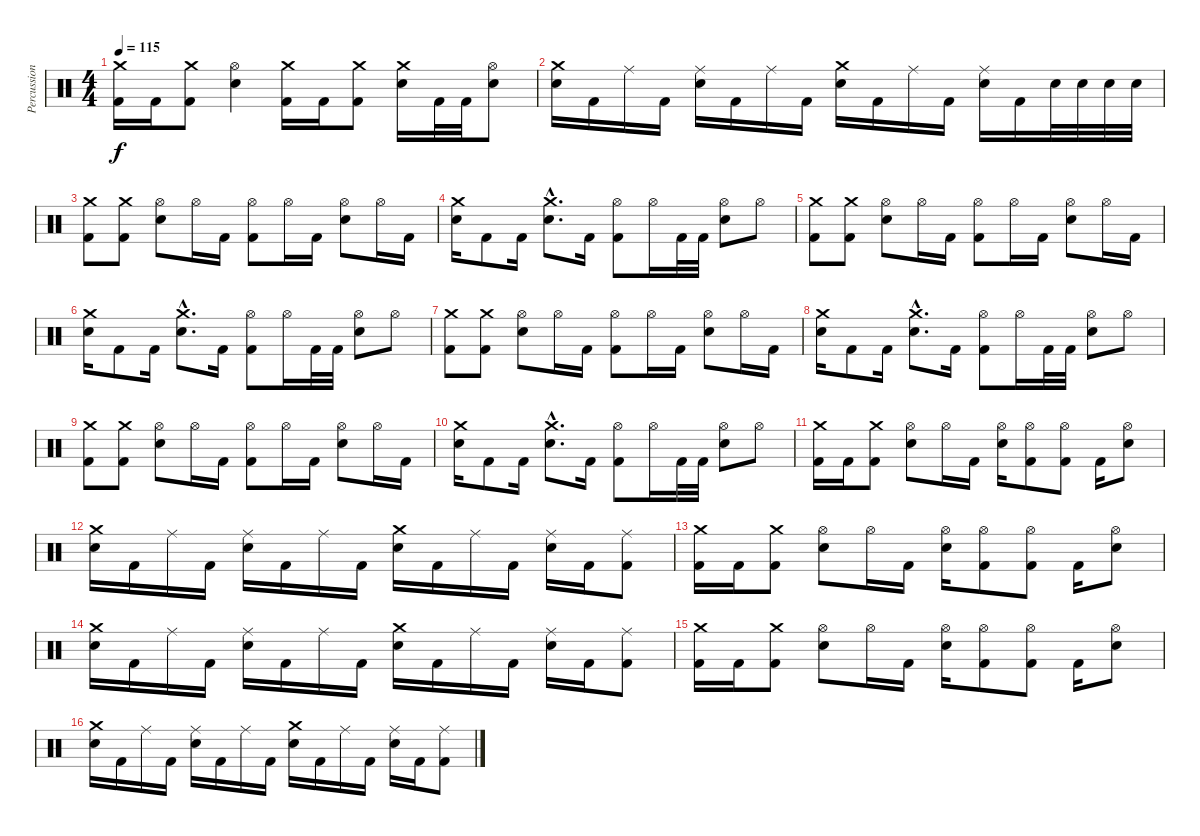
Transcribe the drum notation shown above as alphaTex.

\track ("Percussion" "Percussion") {instrument percussion}
\staff {score}
\articulation defaults
\ts (4 4)
\tempo 115
\clef neutral
\ks c
("Crash medium (hit)" "Kick (hit) 2").16{dy f} "Kick (hit) 2".16 ("Crash medium (hit)" "Kick (hit) 2").8 ("Hi-Hat (open)" "Snare (hit) 2").4 ("Crash medium (hit)" "Kick (hit) 2").16 "Kick (hit) 2".16 ("Crash medium (hit)" "Kick (hit) 2").8 ("Crash medium (hit)" "Snare (hit) 2").16 "Kick (hit) 2".32 "Kick (hit) 2".32 ("Hi-Hat (open)" "Snare (hit) 2").8 |
("Crash medium (hit)" "Snare (hit) 2").16 "Kick (hit) 2".16 "Ride (middle)".16 "Kick (hit) 2".16 ("Ride (middle)" "Snare (hit) 2").16 "Kick (hit) 2".16 "Ride (middle)".16 "Kick (hit) 2".16 ("Crash medium (hit)" "Snare (hit) 2").16 "Kick (hit) 2".16 "Ride (middle)".16 "Kick (hit) 2".16 ("Ride (middle)" "Snare (hit) 2").16 "Kick (hit) 2".16 "Snare (hit) 2".32 "Snare (hit) 2".32 "Snare (hit) 2".32 "Snare (hit) 2".32 |
("Crash medium (hit)" "Kick (hit) 2").8 ("Crash medium (hit)" "Kick (hit) 2").8 ("Hi-Hat (open)" "Snare (hit) 2").8 "Hi-Hat (open)".16 "Kick (hit) 2".16 ("Hi-Hat (open)" "Kick (hit) 2").8 "Hi-Hat (open)".16 "Kick (hit) 2".16 ("Hi-Hat (open)" "Snare (hit) 2").8 "Hi-Hat (open)".16 "Kick (hit) 2".16 |
("Crash medium (hit)" "Snare (hit) 2").16 "Kick (hit) 2".8 "Kick (hit) 2".16 ("Crash medium (hit)"{hac} "Snare (hit) 2"{hac}).8{d} "Kick (hit) 2".16 ("Hi-Hat (open)" "Kick (hit) 2").8 "Hi-Hat (open)".16 "Kick (hit) 2".32 "Kick (hit) 2".32 ("Hi-Hat (open)" "Snare (hit) 2").8 "Hi-Hat (open)".8 |
("Crash medium (hit)" "Kick (hit) 2").8 ("Crash medium (hit)" "Kick (hit) 2").8 ("Hi-Hat (open)" "Snare (hit) 2").8 "Hi-Hat (open)".16 "Kick (hit) 2".16 ("Hi-Hat (open)" "Kick (hit) 2").8 "Hi-Hat (open)".16 "Kick (hit) 2".16 ("Hi-Hat (open)" "Snare (hit) 2").8 "Hi-Hat (open)".16 "Kick (hit) 2".16 |
("Crash medium (hit)" "Snare (hit) 2").16 "Kick (hit) 2".8 "Kick (hit) 2".16 ("Crash medium (hit)"{hac} "Snare (hit) 2"{hac}).8{d} "Kick (hit) 2".16 ("Hi-Hat (open)" "Kick (hit) 2").8 "Hi-Hat (open)".16 "Kick (hit) 2".32 "Kick (hit) 2".32 ("Hi-Hat (open)" "Snare (hit) 2").8 "Hi-Hat (open)".8 |
("Crash medium (hit)" "Kick (hit) 2").8 ("Crash medium (hit)" "Kick (hit) 2").8 ("Hi-Hat (open)" "Snare (hit) 2").8 "Hi-Hat (open)".16 "Kick (hit) 2".16 ("Hi-Hat (open)" "Kick (hit) 2").8 "Hi-Hat (open)".16 "Kick (hit) 2".16 ("Hi-Hat (open)" "Snare (hit) 2").8 "Hi-Hat (open)".16 "Kick (hit) 2".16 |
("Crash medium (hit)" "Snare (hit) 2").16 "Kick (hit) 2".8 "Kick (hit) 2".16 ("Crash medium (hit)"{hac} "Snare (hit) 2"{hac}).8{d} "Kick (hit) 2".16 ("Hi-Hat (open)" "Kick (hit) 2").8 "Hi-Hat (open)".16 "Kick (hit) 2".32 "Kick (hit) 2".32 ("Hi-Hat (open)" "Snare (hit) 2").8 "Hi-Hat (open)".8 |
("Crash medium (hit)" "Kick (hit) 2").8 ("Crash medium (hit)" "Kick (hit) 2").8 ("Hi-Hat (open)" "Snare (hit) 2").8 "Hi-Hat (open)".16 "Kick (hit) 2".16 ("Hi-Hat (open)" "Kick (hit) 2").8 "Hi-Hat (open)".16 "Kick (hit) 2".16 ("Hi-Hat (open)" "Snare (hit) 2").8 "Hi-Hat (open)".16 "Kick (hit) 2".16 |
("Crash medium (hit)" "Snare (hit) 2").16 "Kick (hit) 2".8 "Kick (hit) 2".16 ("Crash medium (hit)"{hac} "Snare (hit) 2"{hac}).8{d} "Kick (hit) 2".16 ("Hi-Hat (open)" "Kick (hit) 2").8 "Hi-Hat (open)".16 "Kick (hit) 2".32 "Kick (hit) 2".32 ("Hi-Hat (open)" "Snare (hit) 2").8 "Hi-Hat (open)".8 |
("Crash medium (hit)" "Kick (hit) 2").16 "Kick (hit) 2".16 ("Crash medium (hit)" "Kick (hit) 2").8 ("Hi-Hat (open)" "Snare (hit) 2").8 "Hi-Hat (open)".16 "Kick (hit) 2".16 ("Hi-Hat (open)" "Snare (hit) 2").16 ("Hi-Hat (open)" "Kick (hit) 2").8 ("Hi-Hat (open)" "Kick (hit) 2").8 "Kick (hit) 2".16 ("Hi-Hat (open)" "Snare (hit) 2").8 |
("Crash medium (hit)" "Snare (hit) 2").16 "Kick (hit) 2".16 "Ride (middle)".16 "Kick (hit) 2".16 ("Ride (middle)" "Snare (hit) 2").16 "Kick (hit) 2".16 "Ride (middle)".16 "Kick (hit) 2".16 ("Crash medium (hit)" "Snare (hit) 2").16 "Kick (hit) 2".16 "Ride (middle)".16 "Kick (hit) 2".16 ("Ride (middle)" "Snare (hit) 2").16 "Kick (hit) 2".16 ("Ride (middle)" "Kick (hit) 2").8 |
("Crash medium (hit)" "Kick (hit) 2").16 "Kick (hit) 2".16 ("Crash medium (hit)" "Kick (hit) 2").8 ("Hi-Hat (open)" "Snare (hit) 2").8 "Hi-Hat (open)".16 "Kick (hit) 2".16 ("Hi-Hat (open)" "Snare (hit) 2").16 ("Hi-Hat (open)" "Kick (hit) 2").8 ("Hi-Hat (open)" "Kick (hit) 2").8 "Kick (hit) 2".16 ("Hi-Hat (open)" "Snare (hit) 2").8 |
("Crash medium (hit)" "Snare (hit) 2").16 "Kick (hit) 2".16 "Ride (middle)".16 "Kick (hit) 2".16 ("Ride (middle)" "Snare (hit) 2").16 "Kick (hit) 2".16 "Ride (middle)".16 "Kick (hit) 2".16 ("Crash medium (hit)" "Snare (hit) 2").16 "Kick (hit) 2".16 "Ride (middle)".16 "Kick (hit) 2".16 ("Ride (middle)" "Snare (hit) 2").16 "Kick (hit) 2".16 ("Ride (middle)" "Kick (hit) 2").8 |
("Crash medium (hit)" "Kick (hit) 2").16 "Kick (hit) 2".16 ("Crash medium (hit)" "Kick (hit) 2").8 ("Hi-Hat (open)" "Snare (hit) 2").8 "Hi-Hat (open)".16 "Kick (hit) 2".16 ("Hi-Hat (open)" "Snare (hit) 2").16 ("Hi-Hat (open)" "Kick (hit) 2").8 ("Hi-Hat (open)" "Kick (hit) 2").8 "Kick (hit) 2".16 ("Hi-Hat (open)" "Snare (hit) 2").8 |
("Crash medium (hit)" "Snare (hit) 2").16 "Kick (hit) 2".16 "Ride (middle)".16 "Kick (hit) 2".16 ("Ride (middle)" "Snare (hit) 2").16 "Kick (hit) 2".16 "Ride (middle)".16 "Kick (hit) 2".16 ("Crash medium (hit)" "Snare (hit) 2").16 "Kick (hit) 2".16 "Ride (middle)".16 "Kick (hit) 2".16 ("Ride (middle)" "Snare (hit) 2").16 "Kick (hit) 2".16 ("Ride (middle)" "Kick (hit) 2").8
